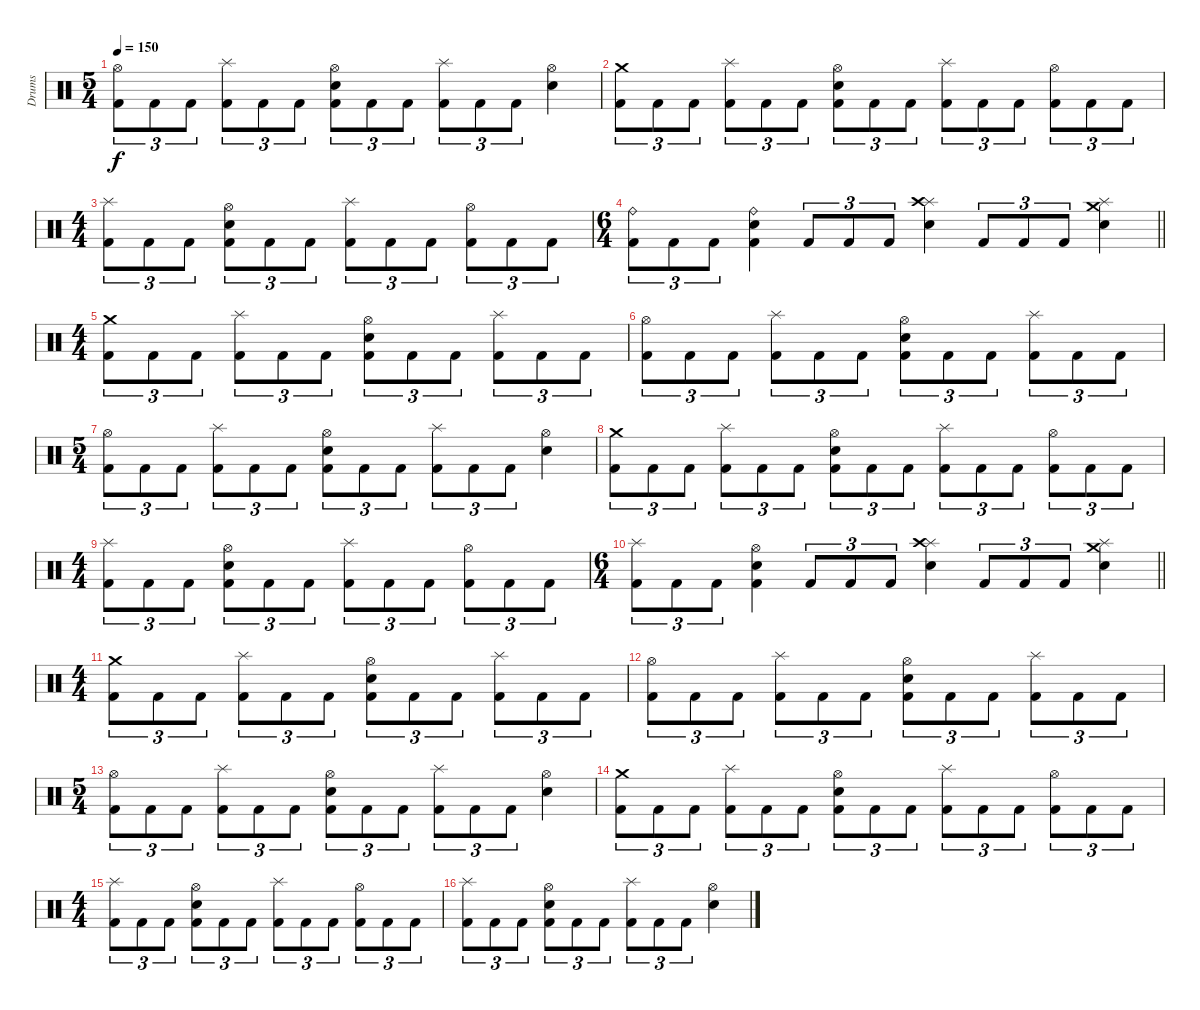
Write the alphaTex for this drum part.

\track ("Drums" "Drums") {instrument percussion}
\staff {score}
\articulation defaults
\ts (5 4)
\tempo 150
\clef neutral
\ks c
("Hi-Hat (open)" "Kick (hit) 2").8{tu (3 2) dy f} "Kick (hit) 2".8{tu (3 2)} "Kick (hit) 2".8{tu (3 2)} ("Splash (hit)" "Kick (hit) 2").8{tu (3 2)} "Kick (hit) 2".8{tu (3 2)} "Kick (hit) 2".8{tu (3 2)} ("Hi-Hat (open)" "Electric Snare (hit)" "Kick (hit) 2").8{tu (3 2)} "Kick (hit) 2".8{tu (3 2)} "Kick (hit) 2".8{tu (3 2)} ("Splash (hit)" "Kick (hit) 2").8{tu (3 2)} "Kick (hit) 2".8{tu (3 2)} "Kick (hit) 2".8{tu (3 2)} ("Hi-Hat (open)" "Electric Snare (hit)").4 |
("Crash medium (hit)" "Kick (hit) 2").8{tu (3 2)} "Kick (hit) 2".8{tu (3 2)} "Kick (hit) 2".8{tu (3 2)} ("Splash (hit)" "Kick (hit) 2").8{tu (3 2)} "Kick (hit) 2".8{tu (3 2)} "Kick (hit) 2".8{tu (3 2)} ("Hi-Hat (open)" "Electric Snare (hit)" "Kick (hit) 2").8{tu (3 2)} "Kick (hit) 2".8{tu (3 2)} "Kick (hit) 2".8{tu (3 2)} ("Splash (hit)" "Kick (hit) 2").8{tu (3 2)} "Kick (hit) 2".8{tu (3 2)} "Kick (hit) 2".8{tu (3 2)} ("Hi-Hat (open)" "Kick (hit) 2").8{tu (3 2)} "Kick (hit) 2".8{tu (3 2)} "Kick (hit) 2".8{tu (3 2)} |
\ts (4 4)
("Splash (hit)" "Kick (hit) 2").8{tu (3 2)} "Kick (hit) 2".8{tu (3 2)} "Kick (hit) 2".8{tu (3 2)} ("Hi-Hat (open)" "Electric Snare (hit)" "Kick (hit) 2").8{tu (3 2)} "Kick (hit) 2".8{tu (3 2)} "Kick (hit) 2".8{tu (3 2)} ("Splash (hit)" "Kick (hit) 2").8{tu (3 2)} "Kick (hit) 2".8{tu (3 2)} "Kick (hit) 2".8{tu (3 2)} ("Hi-Hat (open)" "Kick (hit) 2").8{tu (3 2)} "Kick (hit) 2".8{tu (3 2)} "Kick (hit) 2".8{tu (3 2)} |
\ts (6 4)
\barLineRight lightlight
("Ride (bell)" "Kick (hit) 2").8{tu (3 2)} "Kick (hit) 2".8{tu (3 2)} "Kick (hit) 2".8{tu (3 2)} ("Ride (bell)" "Electric Snare (hit)" "Kick (hit) 2").4 "Kick (hit) 2".8{tu (3 2)} "Kick (hit) 2".8{tu (3 2)} "Kick (hit) 2".8{tu (3 2)} ("Splash (hit)" "Crash high (hit)" "Electric Snare (hit)").4 "Kick (hit) 2".8{tu (3 2)} "Kick (hit) 2".8{tu (3 2)} "Kick (hit) 2".8{tu (3 2)} ("Splash (hit)" "Crash medium (hit)" "Electric Snare (hit)").4 |
\ts (4 4)
("Crash medium (hit)" "Kick (hit) 2").8{tu (3 2)} "Kick (hit) 2".8{tu (3 2)} "Kick (hit) 2".8{tu (3 2)} ("Splash (hit)" "Kick (hit) 2").8{tu (3 2)} "Kick (hit) 2".8{tu (3 2)} "Kick (hit) 2".8{tu (3 2)} ("Hi-Hat (open)" "Electric Snare (hit)" "Kick (hit) 2").8{tu (3 2)} "Kick (hit) 2".8{tu (3 2)} "Kick (hit) 2".8{tu (3 2)} ("Splash (hit)" "Kick (hit) 2").8{tu (3 2)} "Kick (hit) 2".8{tu (3 2)} "Kick (hit) 2".8{tu (3 2)} |
("Hi-Hat (open)" "Kick (hit) 2").8{tu (3 2)} "Kick (hit) 2".8{tu (3 2)} "Kick (hit) 2".8{tu (3 2)} ("Splash (hit)" "Kick (hit) 2").8{tu (3 2)} "Kick (hit) 2".8{tu (3 2)} "Kick (hit) 2".8{tu (3 2)} ("Hi-Hat (open)" "Electric Snare (hit)" "Kick (hit) 2").8{tu (3 2)} "Kick (hit) 2".8{tu (3 2)} "Kick (hit) 2".8{tu (3 2)} ("Splash (hit)" "Kick (hit) 2").8{tu (3 2)} "Kick (hit) 2".8{tu (3 2)} "Kick (hit) 2".8{tu (3 2)} |
\ts (5 4)
("Hi-Hat (open)" "Kick (hit) 2").8{tu (3 2)} "Kick (hit) 2".8{tu (3 2)} "Kick (hit) 2".8{tu (3 2)} ("Splash (hit)" "Kick (hit) 2").8{tu (3 2)} "Kick (hit) 2".8{tu (3 2)} "Kick (hit) 2".8{tu (3 2)} ("Hi-Hat (open)" "Electric Snare (hit)" "Kick (hit) 2").8{tu (3 2)} "Kick (hit) 2".8{tu (3 2)} "Kick (hit) 2".8{tu (3 2)} ("Splash (hit)" "Kick (hit) 2").8{tu (3 2)} "Kick (hit) 2".8{tu (3 2)} "Kick (hit) 2".8{tu (3 2)} ("Hi-Hat (open)" "Electric Snare (hit)").4 |
("Crash medium (hit)" "Kick (hit) 2").8{tu (3 2)} "Kick (hit) 2".8{tu (3 2)} "Kick (hit) 2".8{tu (3 2)} ("Splash (hit)" "Kick (hit) 2").8{tu (3 2)} "Kick (hit) 2".8{tu (3 2)} "Kick (hit) 2".8{tu (3 2)} ("Hi-Hat (open)" "Electric Snare (hit)" "Kick (hit) 2").8{tu (3 2)} "Kick (hit) 2".8{tu (3 2)} "Kick (hit) 2".8{tu (3 2)} ("Splash (hit)" "Kick (hit) 2").8{tu (3 2)} "Kick (hit) 2".8{tu (3 2)} "Kick (hit) 2".8{tu (3 2)} ("Hi-Hat (open)" "Kick (hit) 2").8{tu (3 2)} "Kick (hit) 2".8{tu (3 2)} "Kick (hit) 2".8{tu (3 2)} |
\ts (4 4)
("Splash (hit)" "Kick (hit) 2").8{tu (3 2)} "Kick (hit) 2".8{tu (3 2)} "Kick (hit) 2".8{tu (3 2)} ("Hi-Hat (open)" "Electric Snare (hit)" "Kick (hit) 2").8{tu (3 2)} "Kick (hit) 2".8{tu (3 2)} "Kick (hit) 2".8{tu (3 2)} ("Splash (hit)" "Kick (hit) 2").8{tu (3 2)} "Kick (hit) 2".8{tu (3 2)} "Kick (hit) 2".8{tu (3 2)} ("Hi-Hat (open)" "Kick (hit) 2").8{tu (3 2)} "Kick (hit) 2".8{tu (3 2)} "Kick (hit) 2".8{tu (3 2)} |
\ts (6 4)
\barLineRight lightlight
("Splash (hit)" "Kick (hit) 2").8{tu (3 2)} "Kick (hit) 2".8{tu (3 2)} "Kick (hit) 2".8{tu (3 2)} ("Hi-Hat (open)" "Electric Snare (hit)" "Kick (hit) 2").4 "Kick (hit) 2".8{tu (3 2)} "Kick (hit) 2".8{tu (3 2)} "Kick (hit) 2".8{tu (3 2)} ("Splash (hit)" "Crash high (hit)" "Electric Snare (hit)").4 "Kick (hit) 2".8{tu (3 2)} "Kick (hit) 2".8{tu (3 2)} "Kick (hit) 2".8{tu (3 2)} ("Splash (hit)" "Crash medium (hit)" "Electric Snare (hit)").4 |
\ts (4 4)
("Crash medium (hit)" "Kick (hit) 2").8{tu (3 2)} "Kick (hit) 2".8{tu (3 2)} "Kick (hit) 2".8{tu (3 2)} ("Splash (hit)" "Kick (hit) 2").8{tu (3 2)} "Kick (hit) 2".8{tu (3 2)} "Kick (hit) 2".8{tu (3 2)} ("Hi-Hat (open)" "Electric Snare (hit)" "Kick (hit) 2").8{tu (3 2)} "Kick (hit) 2".8{tu (3 2)} "Kick (hit) 2".8{tu (3 2)} ("Splash (hit)" "Kick (hit) 2").8{tu (3 2)} "Kick (hit) 2".8{tu (3 2)} "Kick (hit) 2".8{tu (3 2)} |
("Hi-Hat (open)" "Kick (hit) 2").8{tu (3 2)} "Kick (hit) 2".8{tu (3 2)} "Kick (hit) 2".8{tu (3 2)} ("Splash (hit)" "Kick (hit) 2").8{tu (3 2)} "Kick (hit) 2".8{tu (3 2)} "Kick (hit) 2".8{tu (3 2)} ("Hi-Hat (open)" "Electric Snare (hit)" "Kick (hit) 2").8{tu (3 2)} "Kick (hit) 2".8{tu (3 2)} "Kick (hit) 2".8{tu (3 2)} ("Splash (hit)" "Kick (hit) 2").8{tu (3 2)} "Kick (hit) 2".8{tu (3 2)} "Kick (hit) 2".8{tu (3 2)} |
\ts (5 4)
("Hi-Hat (open)" "Kick (hit) 2").8{tu (3 2)} "Kick (hit) 2".8{tu (3 2)} "Kick (hit) 2".8{tu (3 2)} ("Splash (hit)" "Kick (hit) 2").8{tu (3 2)} "Kick (hit) 2".8{tu (3 2)} "Kick (hit) 2".8{tu (3 2)} ("Hi-Hat (open)" "Electric Snare (hit)" "Kick (hit) 2").8{tu (3 2)} "Kick (hit) 2".8{tu (3 2)} "Kick (hit) 2".8{tu (3 2)} ("Splash (hit)" "Kick (hit) 2").8{tu (3 2)} "Kick (hit) 2".8{tu (3 2)} "Kick (hit) 2".8{tu (3 2)} ("Hi-Hat (open)" "Electric Snare (hit)").4 |
("Crash medium (hit)" "Kick (hit) 2").8{tu (3 2)} "Kick (hit) 2".8{tu (3 2)} "Kick (hit) 2".8{tu (3 2)} ("Splash (hit)" "Kick (hit) 2").8{tu (3 2)} "Kick (hit) 2".8{tu (3 2)} "Kick (hit) 2".8{tu (3 2)} ("Hi-Hat (open)" "Electric Snare (hit)" "Kick (hit) 2").8{tu (3 2)} "Kick (hit) 2".8{tu (3 2)} "Kick (hit) 2".8{tu (3 2)} ("Splash (hit)" "Kick (hit) 2").8{tu (3 2)} "Kick (hit) 2".8{tu (3 2)} "Kick (hit) 2".8{tu (3 2)} ("Hi-Hat (open)" "Kick (hit) 2").8{tu (3 2)} "Kick (hit) 2".8{tu (3 2)} "Kick (hit) 2".8{tu (3 2)} |
\ts (4 4)
("Splash (hit)" "Kick (hit) 2").8{tu (3 2)} "Kick (hit) 2".8{tu (3 2)} "Kick (hit) 2".8{tu (3 2)} ("Hi-Hat (open)" "Electric Snare (hit)" "Kick (hit) 2").8{tu (3 2)} "Kick (hit) 2".8{tu (3 2)} "Kick (hit) 2".8{tu (3 2)} ("Splash (hit)" "Kick (hit) 2").8{tu (3 2)} "Kick (hit) 2".8{tu (3 2)} "Kick (hit) 2".8{tu (3 2)} ("Hi-Hat (open)" "Kick (hit) 2").8{tu (3 2)} "Kick (hit) 2".8{tu (3 2)} "Kick (hit) 2".8{tu (3 2)} |
("Splash (hit)" "Kick (hit) 2").8{tu (3 2)} "Kick (hit) 2".8{tu (3 2)} "Kick (hit) 2".8{tu (3 2)} ("Hi-Hat (open)" "Electric Snare (hit)" "Kick (hit) 2").8{tu (3 2)} "Kick (hit) 2".8{tu (3 2)} "Kick (hit) 2".8{tu (3 2)} ("Splash (hit)" "Kick (hit) 2").8{tu (3 2)} "Kick (hit) 2".8{tu (3 2)} "Kick (hit) 2".8{tu (3 2)} ("Hi-Hat (open)" "Electric Snare (hit)").4
